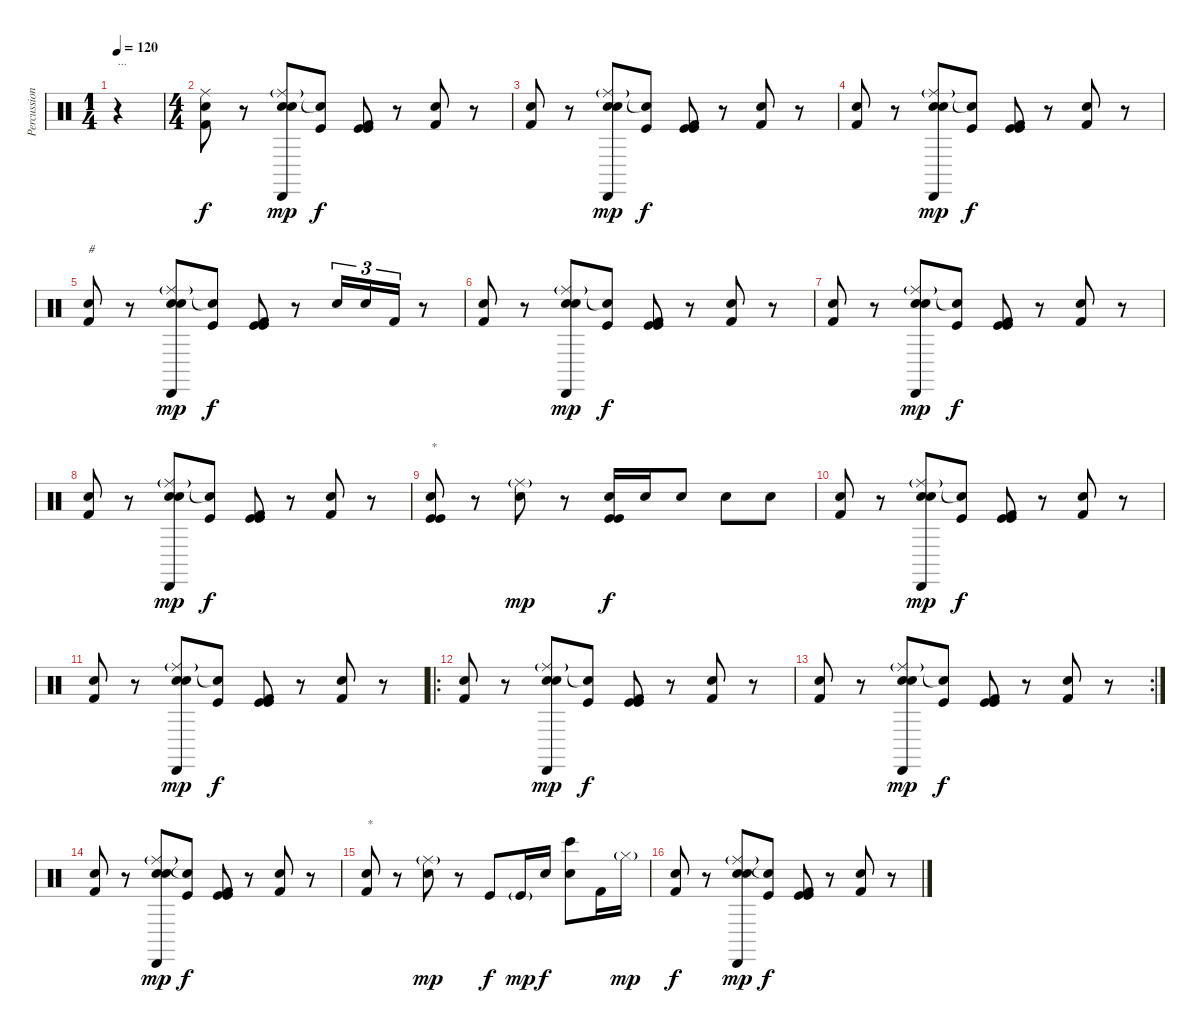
\track ("Percussion" "Percussion") {instrument percussion}
\staff {score}
\articulation defaults
\ts (1 4)
\tempo 120
\clef neutral
\ks c
r.4{txt "..." dy f} |
\ts (4 4)
("Ride (middle)" "Kick (hit) 2" "Snare (hit) 2").8 r.8 ("Ride (middle)"{g} "Snare (hit) 2" "Cabasa (hit)" "Snare (hit) 2").8{dy mp} ("Snare (hit)"{t} "Kick (hit)").8{dy f} ("Kick (hit)" "Kick (hit)" "Kick (hit) 2").8 r.8 ("Kick (hit) 2" "Snare (hit) 2").8 r.8 |
("Kick (hit) 2" "Snare (hit) 2").8 r.8 ("Ride (middle)"{g} "Snare (hit) 2" "Cabasa (hit)" "Snare (hit) 2").8{dy mp} ("Snare (hit)"{t} "Kick (hit)").8{dy f} ("Kick (hit)" "Kick (hit)" "Kick (hit) 2").8 r.8 ("Kick (hit) 2" "Snare (hit) 2").8 r.8 |
("Kick (hit) 2" "Snare (hit) 2").8 r.8 ("Ride (middle)"{g} "Snare (hit) 2" "Cabasa (hit)" "Snare (hit) 2").8{dy mp} ("Snare (hit)"{t} "Kick (hit)").8{dy f} ("Kick (hit)" "Kick (hit)" "Kick (hit) 2").8 r.8 ("Kick (hit) 2" "Snare (hit) 2").8 r.8 |
("Kick (hit) 2" "Snare (hit) 2").8{txt "#"} r.8 ("Ride (middle)"{g} "Snare (hit) 2" "Cabasa (hit)" "Snare (hit) 2").8{dy mp} ("Snare (hit)"{t} "Kick (hit)").8{dy f} ("Kick (hit)" "Kick (hit)" "Kick (hit) 2").8 r.8 "Snare (hit) 2".16{tu (3 2)} "Electric Snare (hit)".16{tu (3 2)} "Kick (hit) 2".16{tu (3 2)} r.8 |
("Kick (hit) 2" "Snare (hit) 2").8 r.8 ("Ride (middle)"{g} "Snare (hit) 2" "Cabasa (hit)" "Snare (hit) 2").8{dy mp} ("Snare (hit)"{t} "Kick (hit)").8{dy f} ("Kick (hit)" "Kick (hit)" "Kick (hit) 2").8 r.8 ("Kick (hit) 2" "Snare (hit) 2").8 r.8 |
("Kick (hit) 2" "Snare (hit) 2").8 r.8 ("Ride (middle)"{g} "Snare (hit) 2" "Cabasa (hit)" "Snare (hit) 2").8{dy mp} ("Snare (hit)"{t} "Kick (hit)").8{dy f} ("Kick (hit)" "Kick (hit)" "Kick (hit) 2").8 r.8 ("Kick (hit) 2" "Snare (hit) 2").8 r.8 |
("Kick (hit) 2" "Snare (hit) 2").8 r.8 ("Ride (middle)"{g} "Snare (hit) 2" "Cabasa (hit)" "Snare (hit) 2").8{dy mp} ("Snare (hit)"{t} "Kick (hit)").8{dy f} ("Kick (hit)" "Kick (hit)" "Kick (hit) 2").8 r.8 ("Kick (hit) 2" "Snare (hit) 2").8 r.8 |
("Kick (hit)" "Kick (hit)" "Snare (hit) 2").8{txt "*"} r.8 ("Ride (middle)"{g} "Snare (hit) 2").8{dy mp} r.8 ("Kick (hit)" "Kick (hit)" "Snare (hit) 2").16{dy f} "Snare (hit) 2".16 "Snare (hit) 2".8 "Snare (hit) 2".8 "Snare (hit) 2".8 |
("Kick (hit) 2" "Snare (hit) 2").8 r.8 ("Ride (middle)"{g} "Snare (hit) 2" "Cabasa (hit)" "Snare (hit) 2").8{dy mp} ("Snare (hit)"{t} "Kick (hit)").8{dy f} ("Kick (hit)" "Kick (hit)" "Kick (hit) 2").8 r.8 ("Kick (hit) 2" "Snare (hit) 2").8 r.8 |
("Kick (hit) 2" "Snare (hit) 2").8 r.8 ("Ride (middle)"{g} "Snare (hit) 2" "Cabasa (hit)" "Snare (hit) 2").8{dy mp} ("Snare (hit)"{t} "Kick (hit)").8{dy f} ("Kick (hit)" "Kick (hit)" "Kick (hit) 2").8 r.8 ("Kick (hit) 2" "Snare (hit) 2").8 r.8 |
\ro
("Kick (hit) 2" "Snare (hit) 2").8 r.8 ("Ride (middle)"{g} "Snare (hit) 2" "Cabasa (hit)" "Snare (hit) 2").8{dy mp} ("Snare (hit)"{t} "Kick (hit)").8{dy f} ("Kick (hit)" "Kick (hit)" "Kick (hit) 2").8 r.8 ("Kick (hit) 2" "Snare (hit) 2").8 r.8 |
\rc 2
("Kick (hit) 2" "Snare (hit) 2").8 r.8 ("Ride (middle)"{g} "Snare (hit) 2" "Cabasa (hit)" "Snare (hit) 2").8{dy mp} ("Snare (hit)"{t} "Kick (hit)").8{dy f} ("Kick (hit)" "Kick (hit)" "Kick (hit) 2").8 r.8 ("Kick (hit) 2" "Snare (hit) 2").8 r.8 |
("Kick (hit) 2" "Snare (hit) 2").8 r.8 ("Ride (middle)"{g} "Snare (hit) 2" "Cabasa (hit)" "Snare (hit) 2").8{dy mp} ("Snare (hit)"{t} "Kick (hit)").8{dy f} ("Kick (hit)" "Kick (hit)" "Kick (hit) 2").8 r.8 ("Kick (hit) 2" "Snare (hit) 2").8 r.8 |
("Kick (hit) 2" "Snare (hit) 2").8{txt "*"} r.8 ("Ride (middle)"{g} "Snare (hit) 2").8{dy mp} r.8 "Kick (hit)".8{dy f} "Kick (hit)"{g}.16{dy mp} "Electric Snare (hit)".16{dy f} ("Bongo High (hit)" "Snare (hit) 2").8 "Kick (hit) 2".16 "Hi-Hat (closed)"{g}.16{dy mp} |
("Kick (hit) 2" "Snare (hit) 2").8{dy f} r.8 ("Ride (middle)"{g} "Snare (hit) 2" "Cabasa (hit)" "Snare (hit) 2").8{dy mp} ("Snare (hit)"{t} "Kick (hit)").8{dy f} ("Kick (hit)" "Kick (hit)" "Kick (hit) 2").8 r.8 ("Kick (hit) 2" "Snare (hit) 2").8 r.8
